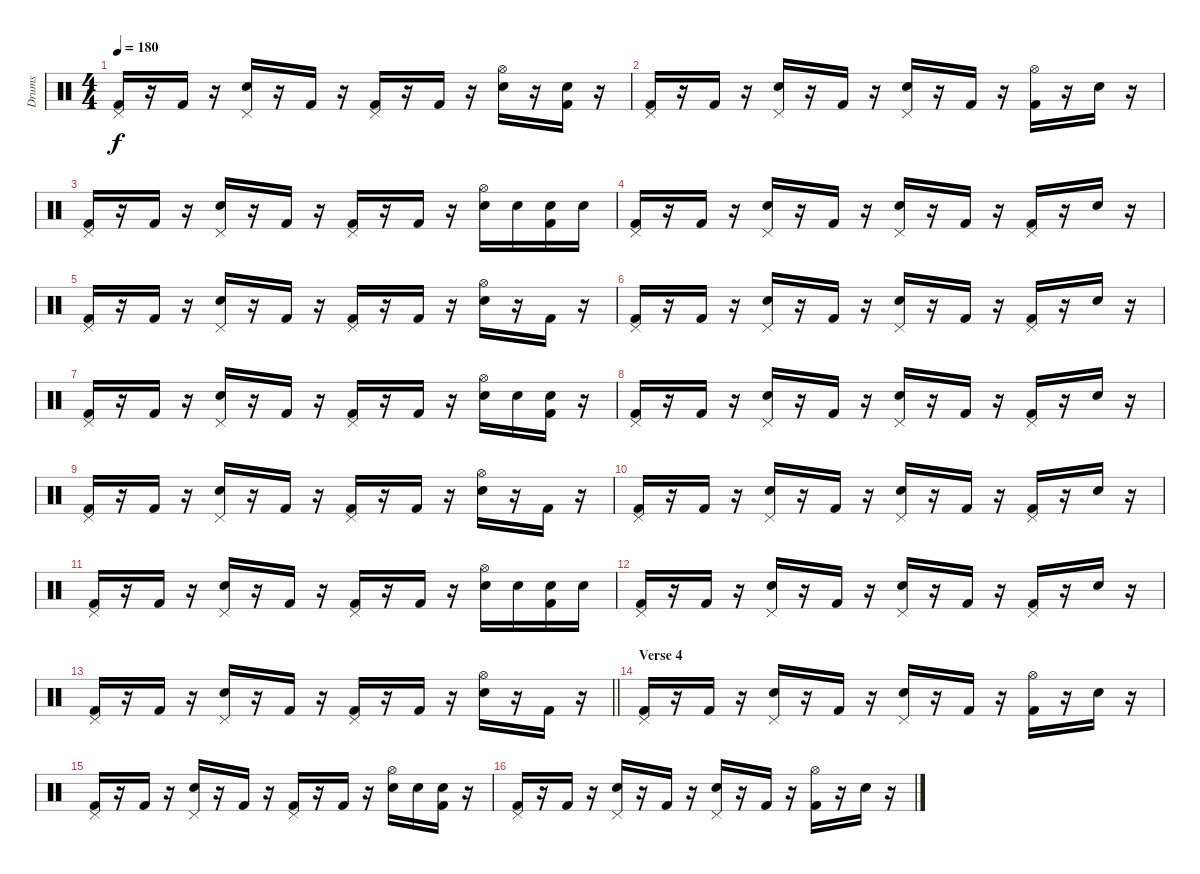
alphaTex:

\track ("Drums" "Drums") {instrument percussion}
\staff {score}
\articulation defaults
\ts (4 4)
\tempo 180
\clef neutral
\ks c
("Pedal Hi-Hat (hit)" "Kick (hit) 2").16{dy f} r.16 "Kick (hit) 2".16 r.16 ("Pedal Hi-Hat (hit)" "Electric Snare (hit)").16 r.16 "Kick (hit) 2".16 r.16 ("Pedal Hi-Hat (hit)" "Kick (hit) 2").16 r.16 "Kick (hit) 2".16 r.16 ("Hi-Hat (open)" "Electric Snare (hit)").16 r.16 ("Electric Snare (hit)" "Kick (hit) 2").16 r.16 |
("Pedal Hi-Hat (hit)" "Kick (hit) 2").16 r.16 "Kick (hit) 2".16 r.16 ("Pedal Hi-Hat (hit)" "Electric Snare (hit)").16 r.16 "Kick (hit) 2".16 r.16 ("Pedal Hi-Hat (hit)" "Electric Snare (hit)").16 r.16 "Kick (hit) 2".16 r.16 ("Hi-Hat (open)" "Kick (hit) 2").16 r.16 "Electric Snare (hit)".16 r.16 |
("Pedal Hi-Hat (hit)" "Kick (hit) 2").16 r.16 "Kick (hit) 2".16 r.16 ("Pedal Hi-Hat (hit)" "Electric Snare (hit)").16 r.16 "Kick (hit) 2".16 r.16 ("Pedal Hi-Hat (hit)" "Kick (hit) 2").16 r.16 "Kick (hit) 2".16 r.16 ("Hi-Hat (open)" "Electric Snare (hit)").16 "Electric Snare (hit)".16 ("Electric Snare (hit)" "Kick (hit) 2").16 "Electric Snare (hit)".16 |
("Pedal Hi-Hat (hit)" "Kick (hit) 2").16 r.16 "Kick (hit) 2".16 r.16 ("Pedal Hi-Hat (hit)" "Electric Snare (hit)").16 r.16 "Kick (hit) 2".16 r.16 ("Pedal Hi-Hat (hit)" "Electric Snare (hit)").16 r.16 "Kick (hit) 2".16 r.16 ("Pedal Hi-Hat (hit)" "Kick (hit) 2").16 r.16 "Electric Snare (hit)".16 r.16 |
("Pedal Hi-Hat (hit)" "Kick (hit) 2").16 r.16 "Kick (hit) 2".16 r.16 ("Pedal Hi-Hat (hit)" "Electric Snare (hit)").16 r.16 "Kick (hit) 2".16 r.16 ("Pedal Hi-Hat (hit)" "Kick (hit) 2").16 r.16 "Kick (hit) 2".16 r.16 ("Hi-Hat (open)" "Electric Snare (hit)").16 r.16 "Kick (hit) 2".16 r.16 |
("Pedal Hi-Hat (hit)" "Kick (hit) 2").16 r.16 "Kick (hit) 2".16 r.16 ("Pedal Hi-Hat (hit)" "Electric Snare (hit)").16 r.16 "Kick (hit) 2".16 r.16 ("Pedal Hi-Hat (hit)" "Electric Snare (hit)").16 r.16 "Kick (hit) 2".16 r.16 ("Pedal Hi-Hat (hit)" "Kick (hit) 2").16 r.16 "Electric Snare (hit)".16 r.16 |
("Pedal Hi-Hat (hit)" "Kick (hit) 2").16 r.16 "Kick (hit) 2".16 r.16 ("Pedal Hi-Hat (hit)" "Electric Snare (hit)").16 r.16 "Kick (hit) 2".16 r.16 ("Pedal Hi-Hat (hit)" "Kick (hit) 2").16 r.16 "Kick (hit) 2".16 r.16 ("Hi-Hat (open)" "Electric Snare (hit)").16 "Electric Snare (hit)".16 ("Electric Snare (hit)" "Kick (hit) 2").16 r.16 |
("Pedal Hi-Hat (hit)" "Kick (hit) 2").16 r.16 "Kick (hit) 2".16 r.16 ("Pedal Hi-Hat (hit)" "Electric Snare (hit)").16 r.16 "Kick (hit) 2".16 r.16 ("Pedal Hi-Hat (hit)" "Electric Snare (hit)").16 r.16 "Kick (hit) 2".16 r.16 ("Pedal Hi-Hat (hit)" "Kick (hit) 2").16 r.16 "Electric Snare (hit)".16 r.16 |
("Pedal Hi-Hat (hit)" "Kick (hit) 2").16 r.16 "Kick (hit) 2".16 r.16 ("Pedal Hi-Hat (hit)" "Electric Snare (hit)").16 r.16 "Kick (hit) 2".16 r.16 ("Pedal Hi-Hat (hit)" "Kick (hit) 2").16 r.16 "Kick (hit) 2".16 r.16 ("Hi-Hat (open)" "Electric Snare (hit)").16 r.16 "Kick (hit) 2".16 r.16 |
("Pedal Hi-Hat (hit)" "Kick (hit) 2").16 r.16 "Kick (hit) 2".16 r.16 ("Pedal Hi-Hat (hit)" "Electric Snare (hit)").16 r.16 "Kick (hit) 2".16 r.16 ("Pedal Hi-Hat (hit)" "Electric Snare (hit)").16 r.16 "Kick (hit) 2".16 r.16 ("Pedal Hi-Hat (hit)" "Kick (hit) 2").16 r.16 "Electric Snare (hit)".16 r.16 |
("Pedal Hi-Hat (hit)" "Kick (hit) 2").16 r.16 "Kick (hit) 2".16 r.16 ("Pedal Hi-Hat (hit)" "Electric Snare (hit)").16 r.16 "Kick (hit) 2".16 r.16 ("Pedal Hi-Hat (hit)" "Kick (hit) 2").16 r.16 "Kick (hit) 2".16 r.16 ("Hi-Hat (open)" "Electric Snare (hit)").16 "Electric Snare (hit)".16 ("Electric Snare (hit)" "Kick (hit) 2").16 "Electric Snare (hit)".16 |
("Pedal Hi-Hat (hit)" "Kick (hit) 2").16 r.16 "Kick (hit) 2".16 r.16 ("Pedal Hi-Hat (hit)" "Electric Snare (hit)").16 r.16 "Kick (hit) 2".16 r.16 ("Pedal Hi-Hat (hit)" "Electric Snare (hit)").16 r.16 "Kick (hit) 2".16 r.16 ("Pedal Hi-Hat (hit)" "Kick (hit) 2").16 r.16 "Electric Snare (hit)".16 r.16 |
\barLineRight lightlight
("Pedal Hi-Hat (hit)" "Kick (hit) 2").16 r.16 "Kick (hit) 2".16 r.16 ("Pedal Hi-Hat (hit)" "Electric Snare (hit)").16 r.16 "Kick (hit) 2".16 r.16 ("Pedal Hi-Hat (hit)" "Kick (hit) 2").16 r.16 "Kick (hit) 2".16 r.16 ("Hi-Hat (open)" "Electric Snare (hit)").16 r.16 "Kick (hit) 2".16 r.16 |
\section ("" "Verse 4")
("Pedal Hi-Hat (hit)" "Kick (hit) 2").16 r.16 "Kick (hit) 2".16 r.16 ("Pedal Hi-Hat (hit)" "Electric Snare (hit)").16 r.16 "Kick (hit) 2".16 r.16 ("Pedal Hi-Hat (hit)" "Electric Snare (hit)").16 r.16 "Kick (hit) 2".16 r.16 ("Hi-Hat (open)" "Kick (hit) 2").16 r.16 "Electric Snare (hit)".16 r.16 |
("Pedal Hi-Hat (hit)" "Kick (hit) 2").16 r.16 "Kick (hit) 2".16 r.16 ("Pedal Hi-Hat (hit)" "Electric Snare (hit)").16 r.16 "Kick (hit) 2".16 r.16 ("Pedal Hi-Hat (hit)" "Kick (hit) 2").16 r.16 "Kick (hit) 2".16 r.16 ("Hi-Hat (open)" "Electric Snare (hit)").16 "Electric Snare (hit)".16 ("Electric Snare (hit)" "Kick (hit) 2").16 r.16 |
("Pedal Hi-Hat (hit)" "Kick (hit) 2").16 r.16 "Kick (hit) 2".16 r.16 ("Pedal Hi-Hat (hit)" "Electric Snare (hit)").16 r.16 "Kick (hit) 2".16 r.16 ("Pedal Hi-Hat (hit)" "Electric Snare (hit)").16 r.16 "Kick (hit) 2".16 r.16 ("Hi-Hat (open)" "Kick (hit) 2").16 r.16 "Electric Snare (hit)".16 r.16
